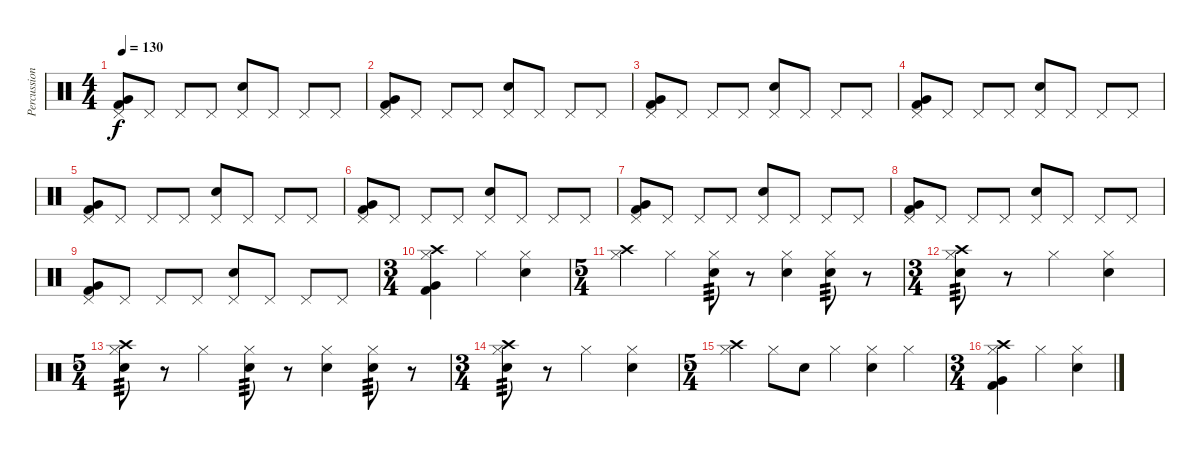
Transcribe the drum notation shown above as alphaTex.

\track ("Percussion" "Percussion") {instrument percussion}
\staff {score}
\articulation defaults
\ts (4 4)
\tempo 130
\clef neutral
\ks c
("Pedal Hi-Hat (hit)" "Very Low Tom (hit)" "Kick (hit) 2").8{dy f} "Pedal Hi-Hat (hit)".8 "Pedal Hi-Hat (hit)".8 "Pedal Hi-Hat (hit)".8 ("Pedal Hi-Hat (hit)" "Electric Snare (hit)").8 "Pedal Hi-Hat (hit)".8 "Pedal Hi-Hat (hit)".8 "Pedal Hi-Hat (hit)".8 |
("Pedal Hi-Hat (hit)" "Very Low Tom (hit)" "Kick (hit) 2").8 "Pedal Hi-Hat (hit)".8 "Pedal Hi-Hat (hit)".8 "Pedal Hi-Hat (hit)".8 ("Pedal Hi-Hat (hit)" "Electric Snare (hit)").8 "Pedal Hi-Hat (hit)".8 "Pedal Hi-Hat (hit)".8 "Pedal Hi-Hat (hit)".8 |
("Pedal Hi-Hat (hit)" "Very Low Tom (hit)" "Kick (hit) 2").8 "Pedal Hi-Hat (hit)".8 "Pedal Hi-Hat (hit)".8 "Pedal Hi-Hat (hit)".8 ("Pedal Hi-Hat (hit)" "Electric Snare (hit)").8 "Pedal Hi-Hat (hit)".8 "Pedal Hi-Hat (hit)".8 "Pedal Hi-Hat (hit)".8 |
("Pedal Hi-Hat (hit)" "Very Low Tom (hit)" "Kick (hit) 2").8 "Pedal Hi-Hat (hit)".8 "Pedal Hi-Hat (hit)".8 "Pedal Hi-Hat (hit)".8 ("Pedal Hi-Hat (hit)" "Electric Snare (hit)").8 "Pedal Hi-Hat (hit)".8 "Pedal Hi-Hat (hit)".8 "Pedal Hi-Hat (hit)".8 |
("Pedal Hi-Hat (hit)" "Very Low Tom (hit)" "Kick (hit) 2").8 "Pedal Hi-Hat (hit)".8 "Pedal Hi-Hat (hit)".8 "Pedal Hi-Hat (hit)".8 ("Pedal Hi-Hat (hit)" "Electric Snare (hit)").8 "Pedal Hi-Hat (hit)".8 "Pedal Hi-Hat (hit)".8 "Pedal Hi-Hat (hit)".8 |
("Pedal Hi-Hat (hit)" "Very Low Tom (hit)" "Kick (hit) 2").8 "Pedal Hi-Hat (hit)".8 "Pedal Hi-Hat (hit)".8 "Pedal Hi-Hat (hit)".8 ("Pedal Hi-Hat (hit)" "Electric Snare (hit)").8 "Pedal Hi-Hat (hit)".8 "Pedal Hi-Hat (hit)".8 "Pedal Hi-Hat (hit)".8 |
("Pedal Hi-Hat (hit)" "Very Low Tom (hit)" "Kick (hit) 2").8 "Pedal Hi-Hat (hit)".8 "Pedal Hi-Hat (hit)".8 "Pedal Hi-Hat (hit)".8 ("Pedal Hi-Hat (hit)" "Electric Snare (hit)").8 "Pedal Hi-Hat (hit)".8 "Pedal Hi-Hat (hit)".8 "Pedal Hi-Hat (hit)".8 |
("Pedal Hi-Hat (hit)" "Very Low Tom (hit)" "Kick (hit) 2").8 "Pedal Hi-Hat (hit)".8 "Pedal Hi-Hat (hit)".8 "Pedal Hi-Hat (hit)".8 ("Pedal Hi-Hat (hit)" "Electric Snare (hit)").8 "Pedal Hi-Hat (hit)".8 "Pedal Hi-Hat (hit)".8 "Pedal Hi-Hat (hit)".8 |
("Pedal Hi-Hat (hit)" "Very Low Tom (hit)" "Kick (hit) 2").8 "Pedal Hi-Hat (hit)".8 "Pedal Hi-Hat (hit)".8 "Pedal Hi-Hat (hit)".8 ("Pedal Hi-Hat (hit)" "Electric Snare (hit)").8 "Pedal Hi-Hat (hit)".8 "Pedal Hi-Hat (hit)".8 "Pedal Hi-Hat (hit)".8 |
\ts (3 4)
("Crash high (hit)" "Hi-Hat (closed)" "Very Low Tom (hit)" "Kick (hit) 2").4 "Hi-Hat (closed)".4 ("Hi-Hat (closed)" "Electric Snare (hit)").4 |
\ts (5 4)
("Crash high (hit)" "Hi-Hat (closed)").4 "Hi-Hat (closed)".4 ("Hi-Hat (closed)" "Electric Snare (hit)").8{tp 3} r.8 ("Hi-Hat (closed)" "Electric Snare (hit)").4 ("Hi-Hat (closed)" "Electric Snare (hit)").8{tp 3} r.8 |
\ts (3 4)
("Crash high (hit)" "Hi-Hat (closed)" "Electric Snare (hit)").8{tp 3} r.8 "Hi-Hat (closed)".4 ("Hi-Hat (closed)" "Electric Snare (hit)").4 |
\ts (5 4)
("Crash high (hit)" "Hi-Hat (closed)" "Electric Snare (hit)").8{tp 3} r.8 "Hi-Hat (closed)".4 ("Hi-Hat (closed)" "Electric Snare (hit)").8{tp 3} r.8 ("Hi-Hat (closed)" "Electric Snare (hit)").4 ("Hi-Hat (closed)" "Electric Snare (hit)").8{tp 3} r.8 |
\ts (3 4)
("Crash high (hit)" "Hi-Hat (closed)" "Electric Snare (hit)").8{tp 3} r.8 "Hi-Hat (closed)".4 ("Hi-Hat (closed)" "Electric Snare (hit)").4 |
\ts (5 4)
("Crash high (hit)" "Hi-Hat (closed)").4 "Hi-Hat (closed)".8 "Electric Snare (hit)".8 "Hi-Hat (closed)".4 ("Hi-Hat (closed)" "Electric Snare (hit)").4 "Hi-Hat (closed)".4 |
\ts (3 4)
("Crash high (hit)" "Hi-Hat (closed)" "Very Low Tom (hit)" "Kick (hit) 2").4 "Hi-Hat (closed)".4 ("Hi-Hat (closed)" "Electric Snare (hit)").4
